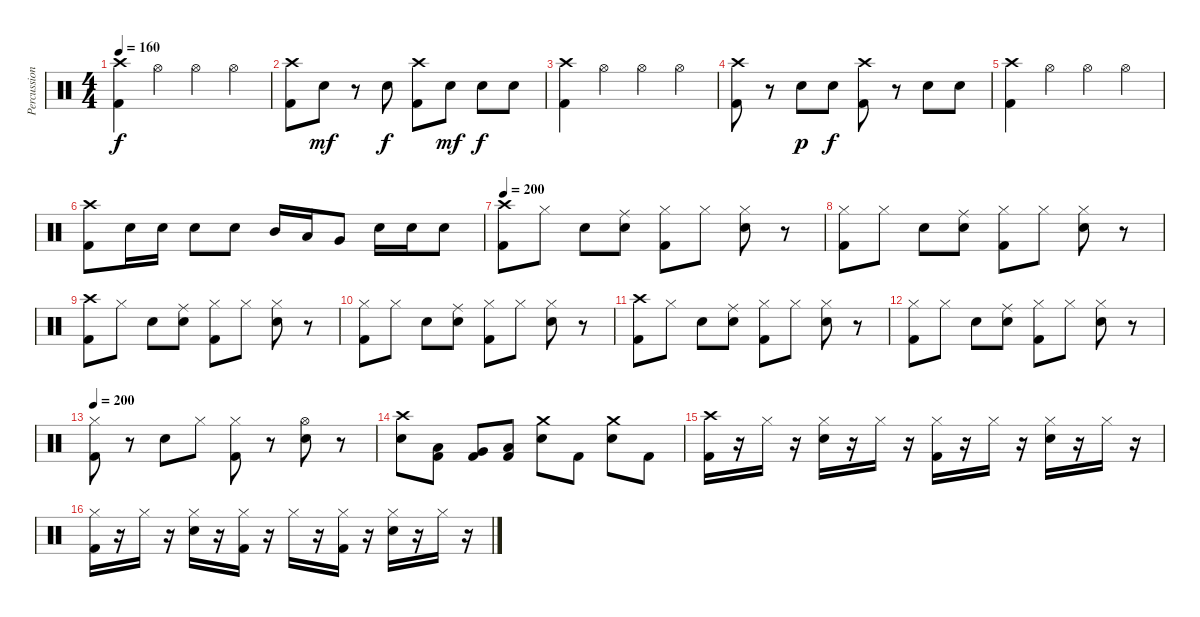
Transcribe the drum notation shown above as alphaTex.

\track ("Percussion" "Percussion") {instrument percussion}
\staff {score}
\articulation defaults
\ts (4 4)
\tempo 160
\clef neutral
\ks c
("Crash high (hit)" "Kick (hit) 2").4{dy f} "Hi-Hat (open)".4 "Hi-Hat (open)".4 "Hi-Hat (open)".4 |
("Crash high (hit)" "Kick (hit) 2").8 "Snare (hit) 2".8{dy mf} r.8 "Snare (hit) 2".8{dy f} ("Crash high (hit)" "Kick (hit) 2").8 "Snare (hit) 2".8{dy mf} "Snare (hit) 2".8{dy f} "Snare (hit) 2".8 |
("Crash high (hit)" "Kick (hit) 2").4 "Hi-Hat (open)".4 "Hi-Hat (open)".4 "Hi-Hat (open)".4 |
("Crash high (hit)" "Kick (hit) 2").8 r.8 "Snare (hit) 2".8{dy p} "Snare (hit) 2".8{dy f} ("Crash high (hit)" "Kick (hit) 2").8 r.8 "Snare (hit) 2".8 "Snare (hit) 2".8 |
("Crash high (hit)" "Kick (hit) 2").4 "Hi-Hat (open)".4 "Hi-Hat (open)".4 "Hi-Hat (open)".4 |
("Crash high (hit)" "Kick (hit) 2").8 "Snare (hit) 2".16 "Snare (hit) 2".16 "Snare (hit) 2".8 "Snare (hit) 2".8 "Mid Tom (hit)".16 "Low Tom (hit)".16 "Very Low Tom (hit)".8 "Snare (hit) 2".16 "Snare (hit) 2".16 "Snare (hit) 2".8 |
\tempo 200
("Crash high (hit)" "Kick (hit) 2").8 "Hi-Hat (closed)".8 "Snare (hit) 2".8 ("Snare (hit) 2" "Ride (middle)").8 ("Hi-Hat (closed)" "Kick (hit) 2").8 "Hi-Hat (closed)".8 ("Hi-Hat (closed)" "Snare (hit) 2").8 r.8 |
("Hi-Hat (closed)" "Kick (hit) 2").8 "Hi-Hat (closed)".8 "Snare (hit) 2".8 ("Snare (hit) 2" "Ride (middle)").8 ("Hi-Hat (closed)" "Kick (hit) 2").8 "Hi-Hat (closed)".8 ("Hi-Hat (closed)" "Snare (hit) 2").8 r.8 |
("Crash high (hit)" "Kick (hit) 2").8 "Hi-Hat (closed)".8 "Snare (hit) 2".8 ("Snare (hit) 2" "Ride (middle)").8 ("Hi-Hat (closed)" "Kick (hit) 2").8 "Hi-Hat (closed)".8 ("Hi-Hat (closed)" "Snare (hit) 2").8 r.8 |
("Hi-Hat (closed)" "Kick (hit) 2").8 "Hi-Hat (closed)".8 "Snare (hit) 2".8 ("Snare (hit) 2" "Ride (middle)").8 ("Hi-Hat (closed)" "Kick (hit) 2").8 "Hi-Hat (closed)".8 ("Hi-Hat (closed)" "Snare (hit) 2").8 r.8 |
("Crash high (hit)" "Kick (hit) 2").8 "Hi-Hat (closed)".8 "Snare (hit) 2".8 ("Snare (hit) 2" "Ride (middle)").8 ("Hi-Hat (closed)" "Kick (hit) 2").8 "Hi-Hat (closed)".8 ("Hi-Hat (closed)" "Snare (hit) 2").8 r.8 |
("Hi-Hat (closed)" "Kick (hit) 2").8 "Hi-Hat (closed)".8 "Snare (hit) 2".8 ("Snare (hit) 2" "Ride (middle)").8 ("Hi-Hat (closed)" "Kick (hit) 2").8 "Hi-Hat (closed)".8 ("Hi-Hat (closed)" "Snare (hit) 2").8 r.8 |
\tempo 200
("Hi-Hat (closed)" "Kick (hit) 2").8 r.8 "Snare (hit) 2".8 "Hi-Hat (closed)".8 ("Hi-Hat (closed)" "Kick (hit) 2").8 r.8 ("Hi-Hat (open)" "Snare (hit) 2").8 r.8 |
("Crash high (hit)" "Snare (hit) 2").8 ("Low Tom (hit)" "Kick (hit) 2").8 ("Very Low Tom (hit)" "Kick (hit) 2").8 ("Low Floor Tom (hit)" "Kick (hit) 2").8 ("Crash medium (hit)" "Snare (hit) 2").8 "Kick (hit) 2".8 ("Crash medium (hit)" "Snare (hit) 2").8 "Kick (hit) 2".8 |
("Crash high (hit)" "Kick (hit) 2").16 r.16 "Hi-Hat (closed)".16 r.16 ("Hi-Hat (closed)" "Snare (hit) 2").16 r.16 "Hi-Hat (closed)".16 r.16 ("Hi-Hat (closed)" "Kick (hit) 2").16 r.16 "Hi-Hat (closed)".16 r.16 ("Hi-Hat (closed)" "Snare (hit) 2").16 r.16 "Hi-Hat (closed)".16 r.16 |
("Hi-Hat (closed)" "Kick (hit) 2").16 r.16 "Hi-Hat (closed)".16 r.16 ("Hi-Hat (closed)" "Snare (hit) 2").16 r.16 ("Hi-Hat (closed)" "Kick (hit) 2").16 r.16 "Hi-Hat (closed)".16 r.16 ("Hi-Hat (closed)" "Kick (hit) 2").16 r.16 ("Hi-Hat (closed)" "Snare (hit) 2").16 r.16 "Hi-Hat (closed)".16 r.16
